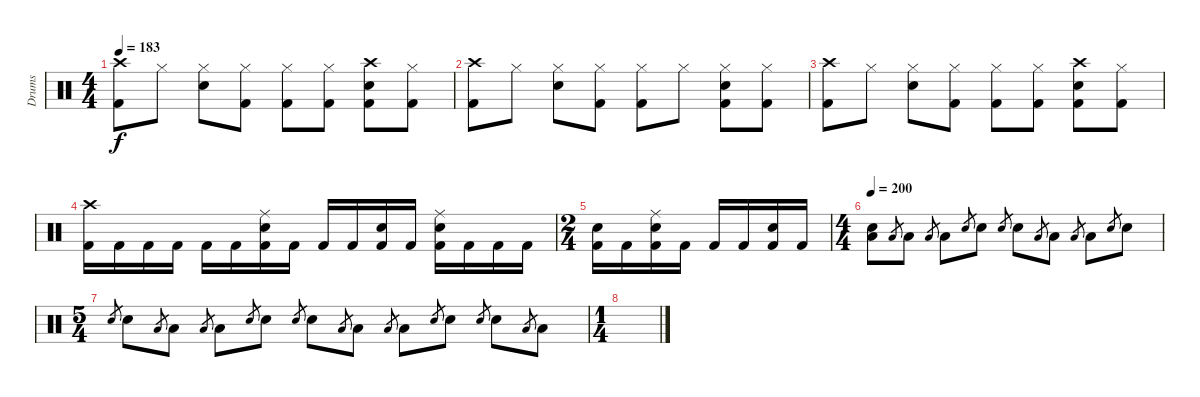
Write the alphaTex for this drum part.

\track ("Drums" "Drums") {instrument percussion}
\staff {score}
\articulation defaults
\ts (4 4)
\tempo 183
\clef neutral
\ks c
("Crash high (hit)" "Kick (hit) 2").8{dy f} "Hi-Hat (closed)".8 ("Hi-Hat (closed)" "Snare (hit) 2").8 ("Hi-Hat (closed)" "Kick (hit) 2").8 ("Hi-Hat (closed)" "Kick (hit) 2").8 ("Hi-Hat (closed)" "Kick (hit) 2").8 ("Crash high (hit)" "Snare (hit) 2" "Kick (hit) 2").8 ("Hi-Hat (closed)" "Kick (hit) 2").8 |
("Crash high (hit)" "Kick (hit) 2").8 "Hi-Hat (closed)".8 ("Hi-Hat (closed)" "Snare (hit) 2").8 ("Hi-Hat (closed)" "Kick (hit) 2").8 ("Hi-Hat (closed)" "Kick (hit) 2").8 "Hi-Hat (closed)".8 ("Hi-Hat (closed)" "Snare (hit) 2" "Kick (hit) 2").8 ("Hi-Hat (closed)" "Kick (hit) 2").8 |
("Crash high (hit)" "Kick (hit) 2").8 "Hi-Hat (closed)".8 ("Hi-Hat (closed)" "Snare (hit) 2").8 ("Hi-Hat (closed)" "Kick (hit) 2").8 ("Hi-Hat (closed)" "Kick (hit) 2").8 ("Hi-Hat (closed)" "Kick (hit) 2").8 ("Crash high (hit)" "Snare (hit) 2" "Kick (hit) 2").8 ("Hi-Hat (closed)" "Kick (hit) 2").8 |
("Crash high (hit)" "Kick (hit) 2").16 "Kick (hit) 2".16 "Kick (hit) 2".16 "Kick (hit) 2".16 "Kick (hit) 2".16 "Kick (hit) 2".16 ("Ride (middle)" "Snare (hit) 2" "Kick (hit) 2").16 "Kick (hit) 2".16 "Kick (hit) 2".16 "Kick (hit) 2".16 ("Snare (hit) 2" "Kick (hit) 2").16 "Kick (hit) 2".16 ("Ride (middle)" "Snare (hit) 2" "Kick (hit) 2").16 "Kick (hit) 2".16 "Kick (hit) 2".16 "Kick (hit) 2".16 |
\ts (2 4)
("Snare (hit) 2" "Kick (hit) 2").16 "Kick (hit) 2".16 ("Ride (middle)" "Snare (hit) 2" "Kick (hit) 2").16 "Kick (hit) 2".16 "Kick (hit) 2".16 "Kick (hit) 2".16 ("Snare (hit) 2" "Kick (hit) 2").16 "Kick (hit) 2".16 |
\ts (4 4)
\tempo 200
("Low Tom (hit)" "Snare (hit) 2").8 "Low Tom (hit)".8{gr} "Low Tom (hit)".8 "Low Tom (hit)".8{gr} "Low Tom (hit)".8 "Snare (hit) 2".8{gr} "Snare (hit) 2".8 "Snare (hit) 2".8{gr} "Snare (hit) 2".8 "Low Tom (hit)".8{gr} "Low Tom (hit)".8 "Low Tom (hit)".8{gr} "Low Tom (hit)".8 "Snare (hit) 2".8{gr} "Snare (hit) 2".8 |
\ts (5 4)
"Snare (hit) 2".8{gr} "Snare (hit) 2".8 "Low Tom (hit)".8{gr} "Low Tom (hit)".8 "Low Tom (hit)".8{gr} "Low Tom (hit)".8 "Snare (hit) 2".8{gr} "Snare (hit) 2".8 "Snare (hit) 2".8{gr} "Snare (hit) 2".8 "Low Tom (hit)".8{gr} "Low Tom (hit)".8 "Low Tom (hit)".8{gr} "Low Tom (hit)".8 "Snare (hit) 2".8{gr} "Snare (hit) 2".8 "Snare (hit) 2".8{gr} "Snare (hit) 2".8 "Low Tom (hit)".8{gr} "Low Tom (hit)".8 |
\ts (1 4)
